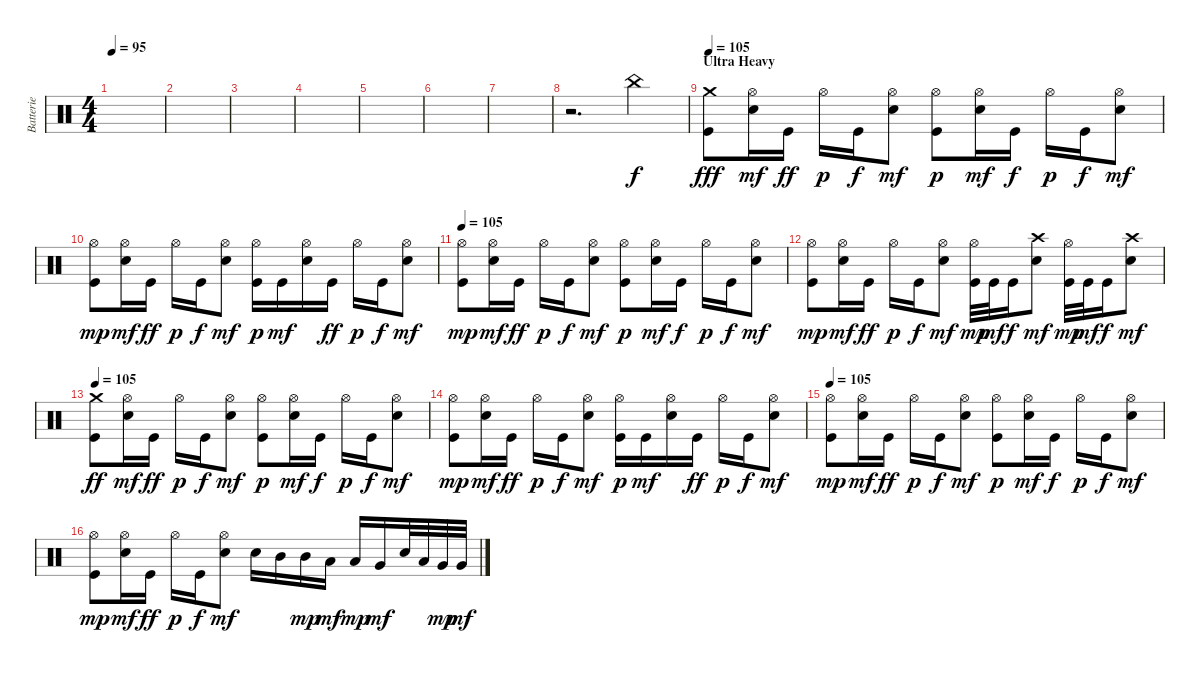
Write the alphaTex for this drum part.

\track ("Batterie" "Batterie") {instrument percussion}
\staff {score}
\articulation defaults
\ts (4 4)
\tempo 95
\clef neutral
\ks c
|
|
|
|
|
|
|
r.2{d} "China (hit)".4{dy f} |
\section ("" "Ultra Heavy")
\tempo 105
("Crash medium (hit)" "Kick (hit)").8{dy fff} ("Hi-Hat (open)" "Electric Snare (hit)").16{dy mf} "Kick (hit)".16{dy ff} "Hi-Hat (open)".16{dy p} "Kick (hit)".16{dy f} ("Hi-Hat (open)" "Electric Snare (hit)").8{dy mf} ("Hi-Hat (open)" "Kick (hit)").8{dy p} ("Hi-Hat (open)" "Electric Snare (hit)").16{dy mf} "Kick (hit)".16{dy f} "Hi-Hat (open)".16{dy p} "Kick (hit)".16{dy f} ("Hi-Hat (open)" "Electric Snare (hit)").8{dy mf} |
("Hi-Hat (open)" "Kick (hit)").8{dy mp} ("Hi-Hat (open)" "Electric Snare (hit)").16{dy mf} "Kick (hit)".16{dy ff} "Hi-Hat (open)".16{dy p} "Kick (hit)".16{dy f} ("Hi-Hat (open)" "Electric Snare (hit)").8{dy mf} ("Hi-Hat (open)" "Kick (hit)").16{dy p} "Kick (hit)".16{dy mf} ("Hi-Hat (open)" "Electric Snare (hit)").16 "Kick (hit)".16{dy ff} "Hi-Hat (open)".16{dy p} "Kick (hit)".16{dy f} ("Hi-Hat (open)" "Electric Snare (hit)").8{dy mf} |
\tempo 105
("Hi-Hat (open)" "Kick (hit)").8{dy mp} ("Hi-Hat (open)" "Electric Snare (hit)").16{dy mf} "Kick (hit)".16{dy ff} "Hi-Hat (open)".16{dy p} "Kick (hit)".16{dy f} ("Hi-Hat (open)" "Electric Snare (hit)").8{dy mf} ("Hi-Hat (open)" "Kick (hit)").8{dy p} ("Hi-Hat (open)" "Electric Snare (hit)").16{dy mf} "Kick (hit)".16{dy f} "Hi-Hat (open)".16{dy p} "Kick (hit)".16{dy f} ("Hi-Hat (open)" "Electric Snare (hit)").8{dy mf} |
("Hi-Hat (open)" "Kick (hit)").8{dy mp} ("Hi-Hat (open)" "Electric Snare (hit)").16{dy mf} "Kick (hit)".16{dy ff} "Hi-Hat (open)".16{dy p} "Kick (hit)".16{dy f} ("Hi-Hat (open)" "Electric Snare (hit)").8{dy mf} ("Hi-Hat (open)" "Kick (hit)").32{dy mp} "Kick (hit)".32{dy mf} "Kick (hit)".16{dy f} ("Crash high (hit)" "Electric Snare (hit)").8{dy mf} ("Hi-Hat (open)" "Kick (hit)").32{dy mp} "Kick (hit)".32{dy mf} "Kick (hit)".16{dy f} ("Crash high (hit)" "Electric Snare (hit)").8{dy mf} |
\tempo 105
("Crash medium (hit)" "Kick (hit)").8{dy ff} ("Hi-Hat (open)" "Electric Snare (hit)").16{dy mf} "Kick (hit)".16{dy ff} "Hi-Hat (open)".16{dy p} "Kick (hit)".16{dy f} ("Hi-Hat (open)" "Electric Snare (hit)").8{dy mf} ("Hi-Hat (open)" "Kick (hit)").8{dy p} ("Hi-Hat (open)" "Electric Snare (hit)").16{dy mf} "Kick (hit)".16{dy f} "Hi-Hat (open)".16{dy p} "Kick (hit)".16{dy f} ("Hi-Hat (open)" "Electric Snare (hit)").8{dy mf} |
("Hi-Hat (open)" "Kick (hit)").8{dy mp} ("Hi-Hat (open)" "Electric Snare (hit)").16{dy mf} "Kick (hit)".16{dy ff} "Hi-Hat (open)".16{dy p} "Kick (hit)".16{dy f} ("Hi-Hat (open)" "Electric Snare (hit)").8{dy mf} ("Hi-Hat (open)" "Kick (hit)").16{dy p} "Kick (hit)".16{dy mf} ("Hi-Hat (open)" "Electric Snare (hit)").16 "Kick (hit)".16{dy ff} "Hi-Hat (open)".16{dy p} "Kick (hit)".16{dy f} ("Hi-Hat (open)" "Electric Snare (hit)").8{dy mf} |
\tempo 105
("Hi-Hat (open)" "Kick (hit)").8{dy mp} ("Hi-Hat (open)" "Electric Snare (hit)").16{dy mf} "Kick (hit)".16{dy ff} "Hi-Hat (open)".16{dy p} "Kick (hit)".16{dy f} ("Hi-Hat (open)" "Electric Snare (hit)").8{dy mf} ("Hi-Hat (open)" "Kick (hit)").8{dy p} ("Hi-Hat (open)" "Electric Snare (hit)").16{dy mf} "Kick (hit)".16{dy f} "Hi-Hat (open)".16{dy p} "Kick (hit)".16{dy f} ("Hi-Hat (open)" "Electric Snare (hit)").8{dy mf} |
("Hi-Hat (open)" "Kick (hit)").8{dy mp} ("Hi-Hat (open)" "Electric Snare (hit)").16{dy mf} "Kick (hit)".16{dy ff} "Hi-Hat (open)".16{dy p} "Kick (hit)".16{dy f} ("Hi-Hat (open)" "Electric Snare (hit)").8{dy mf} "Electric Snare (hit)".16 "Mid Tom (hit)".16 "Mid Tom (hit)".16{dy mp} "Low Tom (hit)".16{dy mf} "Low Tom (hit)".16{dy mp} "Very Low Tom (hit)".16{dy mf} "Electric Snare (hit)".32 "Low Tom (hit)".32 "Very Low Tom (hit)".32{dy mp} "Very Low Tom (hit)".32{dy mf}
